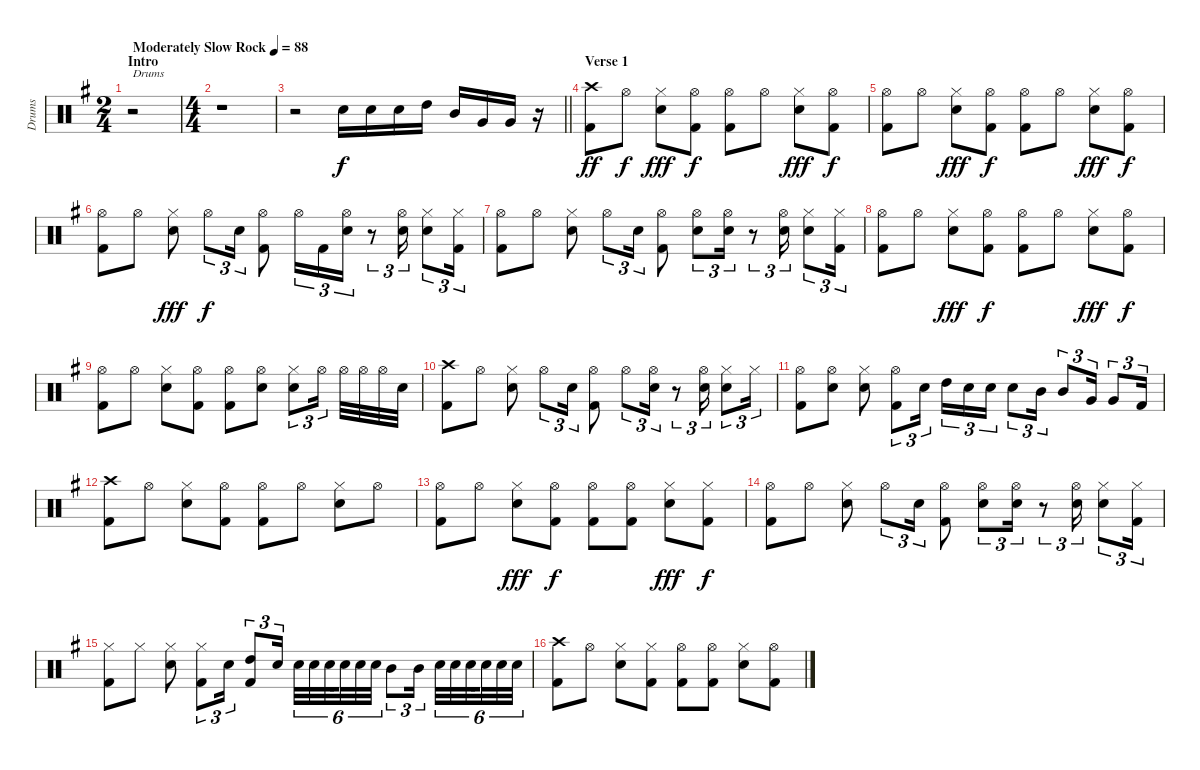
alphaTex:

\track ("Drums" "Drums") {instrument percussion}
\staff {score}
\articulation defaults
\ts (2 4)
\section ("" "Intro")
\tempo (88 "Moderately Slow Rock")
\clef neutral
\ks g
r.2{txt "Drums" dy f} |
\ts (4 4)
r.1 |
\barLineRight lightlight
r.2 "Electric Snare (hit)".16 "Electric Snare (hit)".16 "Electric Snare (hit)".16 "High Tom (hit)".16 "Mid Tom (hit)".16 "Very Low Tom (hit)".16 "Very Low Tom (hit)".16 r.16 |
\section ("" "Verse 1")
("Crash high (hit)" "Kick (hit) 2").8{dy ff} "Hi-Hat (open)".8{dy f} ("Hi-Hat (closed)" "Electric Snare (hit)").8{dy fff} ("Hi-Hat (open)" "Kick (hit) 2").8{dy f} ("Hi-Hat (open)" "Kick (hit) 2").8 "Hi-Hat (open)".8 ("Hi-Hat (closed)" "Electric Snare (hit)").8{dy fff} ("Hi-Hat (open)" "Kick (hit) 2").8{dy f} |
("Hi-Hat (open)" "Kick (hit) 2").8 "Hi-Hat (open)".8 ("Hi-Hat (closed)" "Electric Snare (hit)").8{dy fff} ("Hi-Hat (open)" "Kick (hit) 2").8{dy f} ("Hi-Hat (open)" "Kick (hit) 2").8 "Hi-Hat (open)".8 ("Hi-Hat (closed)" "Electric Snare (hit)").8{dy fff} ("Hi-Hat (open)" "Kick (hit) 2").8{dy f} |
("Hi-Hat (open)" "Kick (hit) 2").8 "Hi-Hat (open)".8 ("Hi-Hat (closed)" "Electric Snare (hit)").8{dy fff} "Hi-Hat (open)".8{tu (3 2) dy f} "Electric Snare (hit)".16{tu (3 2)} ("Hi-Hat (open)" "Kick (hit) 2").8 "Hi-Hat (open)".16{tu (3 2)} "Kick (hit) 2".16{tu (3 2)} ("Hi-Hat (open)" "Electric Snare (hit)").16{tu (3 2)} r.8{tu (3 2)} ("Hi-Hat (open)" "Electric Snare (hit)").16{tu (3 2)} ("Hi-Hat (closed)" "Electric Snare (hit)").8{tu (3 2)} ("Hi-Hat (closed)" "Kick (hit) 2").16{tu (3 2)} |
("Hi-Hat (open)" "Kick (hit) 2").8 "Hi-Hat (open)".8 ("Hi-Hat (closed)" "Electric Snare (hit)").8 "Hi-Hat (open)".8{tu (3 2)} "Electric Snare (hit)".16{tu (3 2)} ("Hi-Hat (open)" "Kick (hit) 2").8 ("Hi-Hat (open)" "Electric Snare (hit)").8{tu (3 2)} ("Hi-Hat (open)" "Electric Snare (hit)").16{tu (3 2)} r.8{tu (3 2)} ("Hi-Hat (open)" "Electric Snare (hit)").16{tu (3 2)} ("Hi-Hat (closed)" "Electric Snare (hit)").8{tu (3 2)} ("Hi-Hat (closed)" "Kick (hit) 2").16{tu (3 2)} |
("Hi-Hat (open)" "Kick (hit) 2").8 "Hi-Hat (open)".8 ("Hi-Hat (closed)" "Electric Snare (hit)").8{dy fff} ("Hi-Hat (open)" "Kick (hit) 2").8{dy f} ("Hi-Hat (open)" "Kick (hit) 2").8 "Hi-Hat (open)".8 ("Hi-Hat (closed)" "Electric Snare (hit)").8{dy fff} ("Hi-Hat (open)" "Kick (hit) 2").8{dy f} |
("Hi-Hat (open)" "Kick (hit) 2").8 "Hi-Hat (open)".8 ("Hi-Hat (closed)" "Electric Snare (hit)").8 ("Hi-Hat (open)" "Kick (hit) 2").8 ("Hi-Hat (open)" "Kick (hit) 2").8 ("Hi-Hat (open)" "Electric Snare (hit)").8 ("Hi-Hat (closed)" "Electric Snare (hit)").8{tu (3 2)} "Hi-Hat (open)".16{tu (3 2) beam splitsecondary} "Hi-Hat (open)".32 "Hi-Hat (open)".32 "Hi-Hat (open)".32 "Electric Snare (hit)".32 |
("Crash high (hit)" "Kick (hit) 2").8 "Hi-Hat (open)".8 ("Hi-Hat (closed)" "Electric Snare (hit)").8 "Hi-Hat (open)".8{tu (3 2)} "Electric Snare (hit)".16{tu (3 2)} ("Hi-Hat (open)" "Kick (hit) 2").8 "Hi-Hat (open)".8{tu (3 2)} ("Hi-Hat (open)" "Electric Snare (hit)").16{tu (3 2)} r.8{tu (3 2)} ("Hi-Hat (open)" "Electric Snare (hit)").16{tu (3 2)} ("Hi-Hat (closed)" "Electric Snare (hit)").8{tu (3 2)} "Hi-Hat (closed)".16{tu (3 2)} |
("Hi-Hat (open)" "Kick (hit) 2").8 ("Hi-Hat (open)" "Electric Snare (hit)").8 ("Hi-Hat (closed)" "Electric Snare (hit)").8 ("Hi-Hat (open)" "Kick (hit) 2").8{tu (3 2)} "Electric Snare (hit)".16{tu (3 2)} "High Tom (hit)".16{tu (3 2)} "Electric Snare (hit)".16{tu (3 2)} "Electric Snare (hit)".16{tu (3 2)} "Electric Snare (hit)".8{tu (3 2)} "Mid Tom (hit)".16{tu (3 2)} "Mid Tom (hit)".8{tu (3 2)} "Very Low Tom (hit)".16{tu (3 2)} "Very Low Tom (hit)".8{tu (3 2)} "Kick (hit) 2".16{tu (3 2)} |
("Crash high (hit)" "Kick (hit) 2").8 "Hi-Hat (open)".8 ("Hi-Hat (closed)" "Electric Snare (hit)").8 ("Hi-Hat (open)" "Kick (hit) 2").8 ("Hi-Hat (open)" "Kick (hit) 2").8 "Hi-Hat (open)".8 ("Hi-Hat (closed)" "Electric Snare (hit)").8 "Hi-Hat (open)".8 |
("Hi-Hat (open)" "Kick (hit) 2").8 "Hi-Hat (open)".8 ("Hi-Hat (closed)" "Electric Snare (hit)").8{dy fff} ("Hi-Hat (open)" "Kick (hit) 2").8{dy f} ("Hi-Hat (open)" "Kick (hit) 2").8 ("Hi-Hat (open)" "Kick (hit) 2").8 ("Hi-Hat (closed)" "Electric Snare (hit)").8{dy fff} ("Hi-Hat (closed)" "Kick (hit) 2").8{dy f} |
("Hi-Hat (open)" "Kick (hit) 2").8 "Hi-Hat (open)".8 ("Hi-Hat (closed)" "Electric Snare (hit)").8 "Hi-Hat (open)".8{tu (3 2)} "Electric Snare (hit)".16{tu (3 2)} ("Hi-Hat (open)" "Kick (hit) 2").8 ("Hi-Hat (open)" "Electric Snare (hit)").8{tu (3 2)} ("Hi-Hat (open)" "Electric Snare (hit)").16{tu (3 2)} r.8{tu (3 2)} ("Hi-Hat (open)" "Electric Snare (hit)").16{tu (3 2)} ("Hi-Hat (closed)" "Electric Snare (hit)").8{tu (3 2)} ("Hi-Hat (closed)" "Kick (hit) 2").16{tu (3 2)} |
("Hi-Hat (closed)" "Kick (hit) 2").8 "Hi-Hat (closed)".8 ("Hi-Hat (closed)" "Electric Snare (hit)").8 ("Hi-Hat (closed)" "Kick (hit) 2").8{tu (3 2)} "Electric Snare (hit)".16{tu (3 2)} ("High Tom (hit)" "Kick (hit) 2").8{tu (3 2)} "Electric Snare (hit)".16{tu (3 2) beam splitsecondary} "Electric Snare (hit)".32{tu (6 4)} "Electric Snare (hit)".32{tu (6 4)} "Electric Snare (hit)".32{tu (6 4) beam splitsecondary} "Electric Snare (hit)".32{tu (6 4)} "Electric Snare (hit)".32{tu (6 4)} "Electric Snare (hit)".32{tu (6 4)} "Mid Tom (hit)".8{tu (3 2)} "Mid Tom (hit)".16{tu (3 2) beam splitsecondary} "Electric Snare (hit)".32{tu (6 4)} "Electric Snare (hit)".32{tu (6 4)} "Electric Snare (hit)".32{tu (6 4) beam splitsecondary} "Electric Snare (hit)".32{tu (6 4)} "Electric Snare (hit)".32{tu (6 4)} "Electric Snare (hit)".32{tu (6 4)} |
("Crash high (hit)" "Kick (hit) 2").8 "Hi-Hat (open)".8 ("Hi-Hat (closed)" "Electric Snare (hit)").8 ("Hi-Hat (closed)" "Kick (hit) 2").8 ("Hi-Hat (open)" "Kick (hit) 2").8 ("Hi-Hat (open)" "Kick (hit) 2").8 ("Hi-Hat (closed)" "Electric Snare (hit)").8 ("Hi-Hat (open)" "Kick (hit) 2").8
